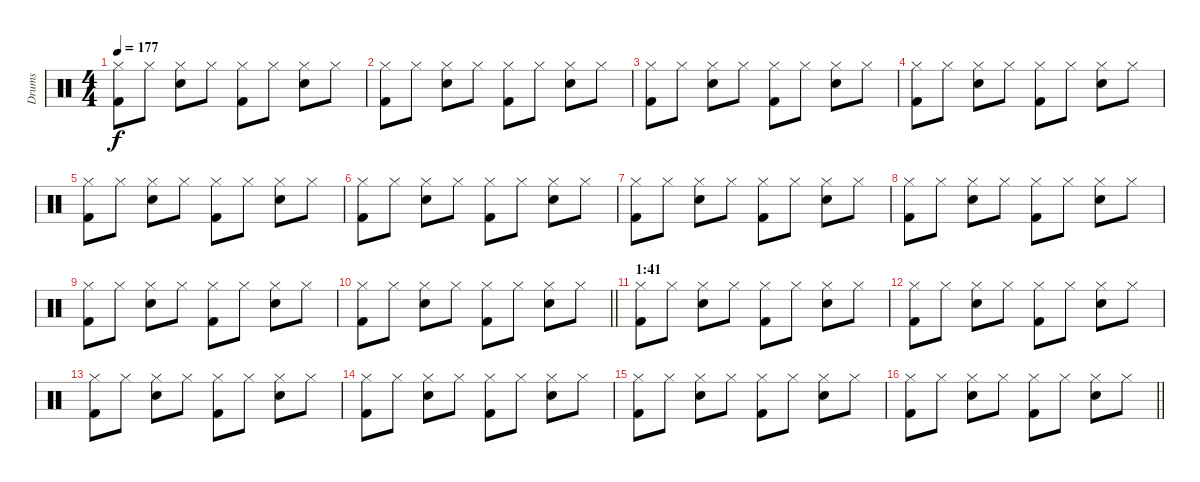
\track ("Drums" "Drums") {instrument percussion}
\staff {score}
\articulation defaults
\ts (4 4)
\tempo 177
\clef neutral
\ks c
("Hi-Hat (closed)" "Kick (hit) 2").8{dy f} "Hi-Hat (closed)".8 ("Hi-Hat (closed)" "Snare (hit) 2").8 "Hi-Hat (closed)".8 ("Hi-Hat (closed)" "Kick (hit) 2").8 "Hi-Hat (closed)".8 ("Hi-Hat (closed)" "Snare (hit) 2").8 "Hi-Hat (closed)".8 |
("Hi-Hat (closed)" "Kick (hit) 2").8 "Hi-Hat (closed)".8 ("Hi-Hat (closed)" "Snare (hit) 2").8 "Hi-Hat (closed)".8 ("Hi-Hat (closed)" "Kick (hit) 2").8 "Hi-Hat (closed)".8 ("Hi-Hat (closed)" "Snare (hit) 2").8 "Hi-Hat (closed)".8 |
("Hi-Hat (closed)" "Kick (hit) 2").8 "Hi-Hat (closed)".8 ("Hi-Hat (closed)" "Snare (hit) 2").8 "Hi-Hat (closed)".8 ("Hi-Hat (closed)" "Kick (hit) 2").8 "Hi-Hat (closed)".8 ("Hi-Hat (closed)" "Snare (hit) 2").8 "Hi-Hat (closed)".8 |
("Hi-Hat (closed)" "Kick (hit) 2").8 "Hi-Hat (closed)".8 ("Hi-Hat (closed)" "Snare (hit) 2").8 "Hi-Hat (closed)".8 ("Hi-Hat (closed)" "Kick (hit) 2").8 "Hi-Hat (closed)".8 ("Hi-Hat (closed)" "Snare (hit) 2").8 "Hi-Hat (closed)".8 |
("Hi-Hat (closed)" "Kick (hit) 2").8 "Hi-Hat (closed)".8 ("Hi-Hat (closed)" "Snare (hit) 2").8 "Hi-Hat (closed)".8 ("Hi-Hat (closed)" "Kick (hit) 2").8 "Hi-Hat (closed)".8 ("Hi-Hat (closed)" "Snare (hit) 2").8 "Hi-Hat (closed)".8 |
("Hi-Hat (closed)" "Kick (hit) 2").8 "Hi-Hat (closed)".8 ("Hi-Hat (closed)" "Snare (hit) 2").8 "Hi-Hat (closed)".8 ("Hi-Hat (closed)" "Kick (hit) 2").8 "Hi-Hat (closed)".8 ("Hi-Hat (closed)" "Snare (hit) 2").8 "Hi-Hat (closed)".8 |
("Hi-Hat (closed)" "Kick (hit) 2").8 "Hi-Hat (closed)".8 ("Hi-Hat (closed)" "Snare (hit) 2").8 "Hi-Hat (closed)".8 ("Hi-Hat (closed)" "Kick (hit) 2").8 "Hi-Hat (closed)".8 ("Hi-Hat (closed)" "Snare (hit) 2").8 "Hi-Hat (closed)".8 |
("Hi-Hat (closed)" "Kick (hit) 2").8 "Hi-Hat (closed)".8 ("Hi-Hat (closed)" "Snare (hit) 2").8 "Hi-Hat (closed)".8 ("Hi-Hat (closed)" "Kick (hit) 2").8 "Hi-Hat (closed)".8 ("Hi-Hat (closed)" "Snare (hit) 2").8 "Hi-Hat (closed)".8 |
("Hi-Hat (closed)" "Kick (hit) 2").8 "Hi-Hat (closed)".8 ("Hi-Hat (closed)" "Snare (hit) 2").8 "Hi-Hat (closed)".8 ("Hi-Hat (closed)" "Kick (hit) 2").8 "Hi-Hat (closed)".8 ("Hi-Hat (closed)" "Snare (hit) 2").8 "Hi-Hat (closed)".8 |
\barLineRight lightlight
("Hi-Hat (closed)" "Kick (hit) 2").8 "Hi-Hat (closed)".8 ("Hi-Hat (closed)" "Snare (hit) 2").8 "Hi-Hat (closed)".8 ("Hi-Hat (closed)" "Kick (hit) 2").8 "Hi-Hat (closed)".8 ("Hi-Hat (closed)" "Snare (hit) 2").8 "Hi-Hat (closed)".8 |
\section ("" "1:41")
("Hi-Hat (closed)" "Kick (hit) 2").8 "Hi-Hat (closed)".8 ("Hi-Hat (closed)" "Snare (hit) 2").8 "Hi-Hat (closed)".8 ("Hi-Hat (closed)" "Kick (hit) 2").8 "Hi-Hat (closed)".8 ("Hi-Hat (closed)" "Snare (hit) 2").8 "Hi-Hat (closed)".8 |
("Hi-Hat (closed)" "Kick (hit) 2").8 "Hi-Hat (closed)".8 ("Hi-Hat (closed)" "Snare (hit) 2").8 "Hi-Hat (closed)".8 ("Hi-Hat (closed)" "Kick (hit) 2").8 "Hi-Hat (closed)".8 ("Hi-Hat (closed)" "Snare (hit) 2").8 "Hi-Hat (closed)".8 |
("Hi-Hat (closed)" "Kick (hit) 2").8 "Hi-Hat (closed)".8 ("Hi-Hat (closed)" "Snare (hit) 2").8 "Hi-Hat (closed)".8 ("Hi-Hat (closed)" "Kick (hit) 2").8 "Hi-Hat (closed)".8 ("Hi-Hat (closed)" "Snare (hit) 2").8 "Hi-Hat (closed)".8 |
("Hi-Hat (closed)" "Kick (hit) 2").8 "Hi-Hat (closed)".8 ("Hi-Hat (closed)" "Snare (hit) 2").8 "Hi-Hat (closed)".8 ("Hi-Hat (closed)" "Kick (hit) 2").8 "Hi-Hat (closed)".8 ("Hi-Hat (closed)" "Snare (hit) 2").8 "Hi-Hat (closed)".8 |
("Hi-Hat (closed)" "Kick (hit) 2").8 "Hi-Hat (closed)".8 ("Hi-Hat (closed)" "Snare (hit) 2").8 "Hi-Hat (closed)".8 ("Hi-Hat (closed)" "Kick (hit) 2").8 "Hi-Hat (closed)".8 ("Hi-Hat (closed)" "Snare (hit) 2").8 "Hi-Hat (closed)".8 |
\barLineRight lightlight
("Hi-Hat (closed)" "Kick (hit) 2").8 "Hi-Hat (closed)".8 ("Hi-Hat (closed)" "Snare (hit) 2").8 "Hi-Hat (closed)".8 ("Hi-Hat (closed)" "Kick (hit) 2").8 "Hi-Hat (closed)".8 ("Hi-Hat (closed)" "Snare (hit) 2").8 "Hi-Hat (closed)".8
